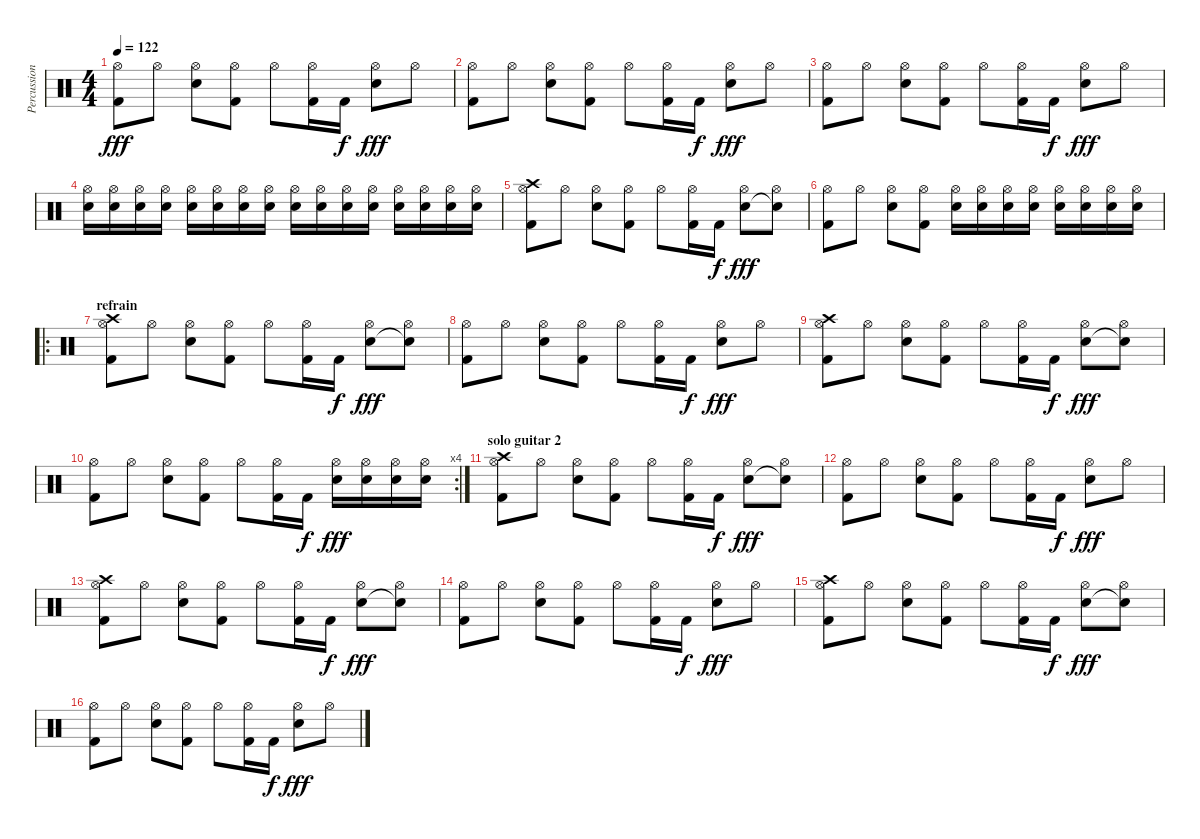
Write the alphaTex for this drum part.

\track ("Percussions" "Percussion") {instrument percussion}
\staff {score}
\articulation defaults
\ts (4 4)
\tempo 122
\clef neutral
\ks c
("Hi-Hat (open)" "Kick (hit) 2").8{dy fff} "Hi-Hat (open)".8 ("Hi-Hat (open)" "Electric Snare (hit)").8 ("Hi-Hat (open)" "Kick (hit) 2").8 "Hi-Hat (open)".8 ("Hi-Hat (open)" "Kick (hit) 2").16 "Kick (hit) 2".16{dy f} ("Hi-Hat (open)" "Electric Snare (hit)").8{dy fff} "Hi-Hat (open)".8 |
("Hi-Hat (open)" "Kick (hit) 2").8 "Hi-Hat (open)".8 ("Hi-Hat (open)" "Electric Snare (hit)").8 ("Hi-Hat (open)" "Kick (hit) 2").8 "Hi-Hat (open)".8 ("Hi-Hat (open)" "Kick (hit) 2").16 "Kick (hit) 2".16{dy f} ("Hi-Hat (open)" "Electric Snare (hit)").8{dy fff} "Hi-Hat (open)".8 |
("Hi-Hat (open)" "Kick (hit) 2").8 "Hi-Hat (open)".8 ("Hi-Hat (open)" "Electric Snare (hit)").8 ("Hi-Hat (open)" "Kick (hit) 2").8 "Hi-Hat (open)".8 ("Hi-Hat (open)" "Kick (hit) 2").16 "Kick (hit) 2".16{dy f} ("Hi-Hat (open)" "Electric Snare (hit)").8{dy fff} "Hi-Hat (open)".8 |
("Hi-Hat (open)" "Electric Snare (hit)").16 ("Hi-Hat (open)" "Electric Snare (hit)").16 ("Hi-Hat (open)" "Electric Snare (hit)").16 ("Hi-Hat (open)" "Electric Snare (hit)").16 ("Hi-Hat (open)" "Electric Snare (hit)").16 ("Hi-Hat (open)" "Electric Snare (hit)").16 ("Hi-Hat (open)" "Electric Snare (hit)").16 ("Hi-Hat (open)" "Electric Snare (hit)").16 ("Hi-Hat (open)" "Electric Snare (hit)").16 ("Hi-Hat (open)" "Electric Snare (hit)").16 ("Hi-Hat (open)" "Electric Snare (hit)").16 ("Hi-Hat (open)" "Electric Snare (hit)").16 ("Hi-Hat (open)" "Electric Snare (hit)").16 ("Hi-Hat (open)" "Electric Snare (hit)").16 ("Hi-Hat (open)" "Electric Snare (hit)").16 ("Hi-Hat (open)" "Electric Snare (hit)").16 |
("Hi-Hat (open)" "Crash high (hit)" "Kick (hit) 2").8 "Hi-Hat (open)".8 ("Hi-Hat (open)" "Electric Snare (hit)").8 ("Hi-Hat (open)" "Kick (hit) 2").8 "Hi-Hat (open)".8 ("Hi-Hat (open)" "Kick (hit) 2").16 "Kick (hit) 2".16{dy f} ("Hi-Hat (open)" "Electric Snare (hit)").8{dy fff} ("Hi-Hat (open)" "Snare (hit)"{t}).8 |
("Hi-Hat (open)" "Kick (hit) 2").8 "Hi-Hat (open)".8 ("Hi-Hat (open)" "Electric Snare (hit)").8 ("Hi-Hat (open)" "Kick (hit) 2").8 ("Hi-Hat (open)" "Electric Snare (hit)").16 ("Hi-Hat (open)" "Electric Snare (hit)").16 ("Hi-Hat (open)" "Electric Snare (hit)").16 ("Hi-Hat (open)" "Electric Snare (hit)").16 ("Hi-Hat (open)" "Electric Snare (hit)").16 ("Hi-Hat (open)" "Electric Snare (hit)").16 ("Hi-Hat (open)" "Electric Snare (hit)").16 ("Hi-Hat (open)" "Electric Snare (hit)").16 |
\ro
\section ("" "refrain")
("Hi-Hat (open)" "Crash high (hit)" "Kick (hit) 2").8 "Hi-Hat (open)".8 ("Hi-Hat (open)" "Electric Snare (hit)").8 ("Hi-Hat (open)" "Kick (hit) 2").8 "Hi-Hat (open)".8 ("Hi-Hat (open)" "Kick (hit) 2").16 "Kick (hit) 2".16{dy f} ("Hi-Hat (open)" "Electric Snare (hit)").8{dy fff} ("Hi-Hat (open)" "Snare (hit)"{t}).8 |
("Hi-Hat (open)" "Kick (hit) 2").8 "Hi-Hat (open)".8 ("Hi-Hat (open)" "Electric Snare (hit)").8 ("Hi-Hat (open)" "Kick (hit) 2").8 "Hi-Hat (open)".8 ("Hi-Hat (open)" "Kick (hit) 2").16 "Kick (hit) 2".16{dy f} ("Hi-Hat (open)" "Electric Snare (hit)").8{dy fff} "Hi-Hat (open)".8 |
("Hi-Hat (open)" "Crash high (hit)" "Kick (hit) 2").8 "Hi-Hat (open)".8 ("Hi-Hat (open)" "Electric Snare (hit)").8 ("Hi-Hat (open)" "Kick (hit) 2").8 "Hi-Hat (open)".8 ("Hi-Hat (open)" "Kick (hit) 2").16 "Kick (hit) 2".16{dy f} ("Hi-Hat (open)" "Electric Snare (hit)").8{dy fff} ("Hi-Hat (open)" "Snare (hit)"{t}).8 |
\rc 4
("Hi-Hat (open)" "Kick (hit) 2").8 "Hi-Hat (open)".8 ("Hi-Hat (open)" "Electric Snare (hit)").8 ("Hi-Hat (open)" "Kick (hit) 2").8 "Hi-Hat (open)".8 ("Hi-Hat (open)" "Kick (hit) 2").16 "Kick (hit) 2".16{dy f} ("Hi-Hat (open)" "Electric Snare (hit)").16{dy fff} ("Hi-Hat (open)" "Electric Snare (hit)").16 ("Hi-Hat (open)" "Electric Snare (hit)").16 ("Hi-Hat (open)" "Electric Snare (hit)").16 |
\section ("" "solo guitar 2")
("Hi-Hat (open)" "Crash high (hit)" "Kick (hit) 2").8 "Hi-Hat (open)".8 ("Hi-Hat (open)" "Electric Snare (hit)").8 ("Hi-Hat (open)" "Kick (hit) 2").8 "Hi-Hat (open)".8 ("Hi-Hat (open)" "Kick (hit) 2").16 "Kick (hit) 2".16{dy f} ("Hi-Hat (open)" "Electric Snare (hit)").8{dy fff} ("Hi-Hat (open)" "Snare (hit)"{t}).8 |
("Hi-Hat (open)" "Kick (hit) 2").8 "Hi-Hat (open)".8 ("Hi-Hat (open)" "Electric Snare (hit)").8 ("Hi-Hat (open)" "Kick (hit) 2").8 "Hi-Hat (open)".8 ("Hi-Hat (open)" "Kick (hit) 2").16 "Kick (hit) 2".16{dy f} ("Hi-Hat (open)" "Electric Snare (hit)").8{dy fff} "Hi-Hat (open)".8 |
("Hi-Hat (open)" "Crash high (hit)" "Kick (hit) 2").8 "Hi-Hat (open)".8 ("Hi-Hat (open)" "Electric Snare (hit)").8 ("Hi-Hat (open)" "Kick (hit) 2").8 "Hi-Hat (open)".8 ("Hi-Hat (open)" "Kick (hit) 2").16 "Kick (hit) 2".16{dy f} ("Hi-Hat (open)" "Electric Snare (hit)").8{dy fff} ("Hi-Hat (open)" "Snare (hit)"{t}).8 |
("Hi-Hat (open)" "Kick (hit) 2").8 "Hi-Hat (open)".8 ("Hi-Hat (open)" "Electric Snare (hit)").8 ("Hi-Hat (open)" "Kick (hit) 2").8 "Hi-Hat (open)".8 ("Hi-Hat (open)" "Kick (hit) 2").16 "Kick (hit) 2".16{dy f} ("Hi-Hat (open)" "Electric Snare (hit)").8{dy fff} "Hi-Hat (open)".8 |
("Hi-Hat (open)" "Crash high (hit)" "Kick (hit) 2").8 "Hi-Hat (open)".8 ("Hi-Hat (open)" "Electric Snare (hit)").8 ("Hi-Hat (open)" "Kick (hit) 2").8 "Hi-Hat (open)".8 ("Hi-Hat (open)" "Kick (hit) 2").16 "Kick (hit) 2".16{dy f} ("Hi-Hat (open)" "Electric Snare (hit)").8{dy fff} ("Hi-Hat (open)" "Snare (hit)"{t}).8 |
("Hi-Hat (open)" "Kick (hit) 2").8 "Hi-Hat (open)".8 ("Hi-Hat (open)" "Electric Snare (hit)").8 ("Hi-Hat (open)" "Kick (hit) 2").8 "Hi-Hat (open)".8 ("Hi-Hat (open)" "Kick (hit) 2").16 "Kick (hit) 2".16{dy f} ("Hi-Hat (open)" "Electric Snare (hit)").8{dy fff} "Hi-Hat (open)".8
